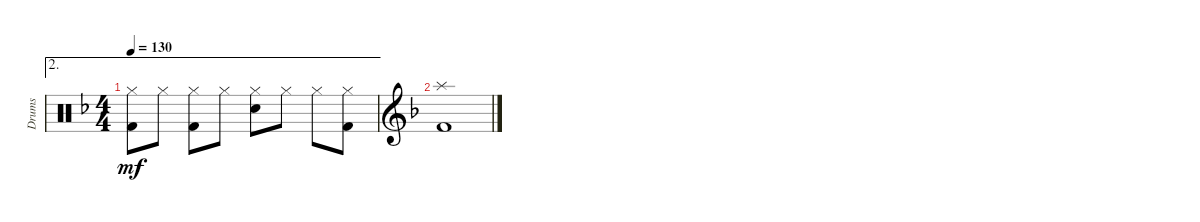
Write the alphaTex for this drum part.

\defaultSystemsLayout 4
\bracketExtendMode groupsimilarinstruments
\otherSystemsTrackNameOrientation horizontal
\track ("Drumkit" "Drums") {instrument percussion}
\staff {score}
\articulation defaults
\ae 2
\ts (4 4)
\tempo 130
\clef neutral
\ks f
("Hi-Hat (closed)"{acc forcenatural} "Kick (hit) 2"{acc forcenatural}).8{dy mf beam Down} "Hi-Hat (closed)"{acc forcenatural}.8{beam Down} ("Hi-Hat (closed)"{acc forcenatural} "Kick (hit) 2"{acc forcenatural}).8{beam Down} "Hi-Hat (closed)"{acc forcenatural}.8{beam Down} ("Hi-Hat (closed)"{acc forcenatural} "Snare (hit) 2"{acc forcenatural}).8{beam Down} "Hi-Hat (closed)"{acc forcenatural}.8{beam Down} "Hi-Hat (closed)"{acc forcenatural}.8{beam Down} ("Hi-Hat (closed)"{acc forcenatural} "Kick (hit) 2"{acc forcenatural}).8{beam Down} |
\clef g2
("Kick (hit) 2"{acc forcenatural} "Splash (hit)"{acc forcenatural}).1{beam Down}
